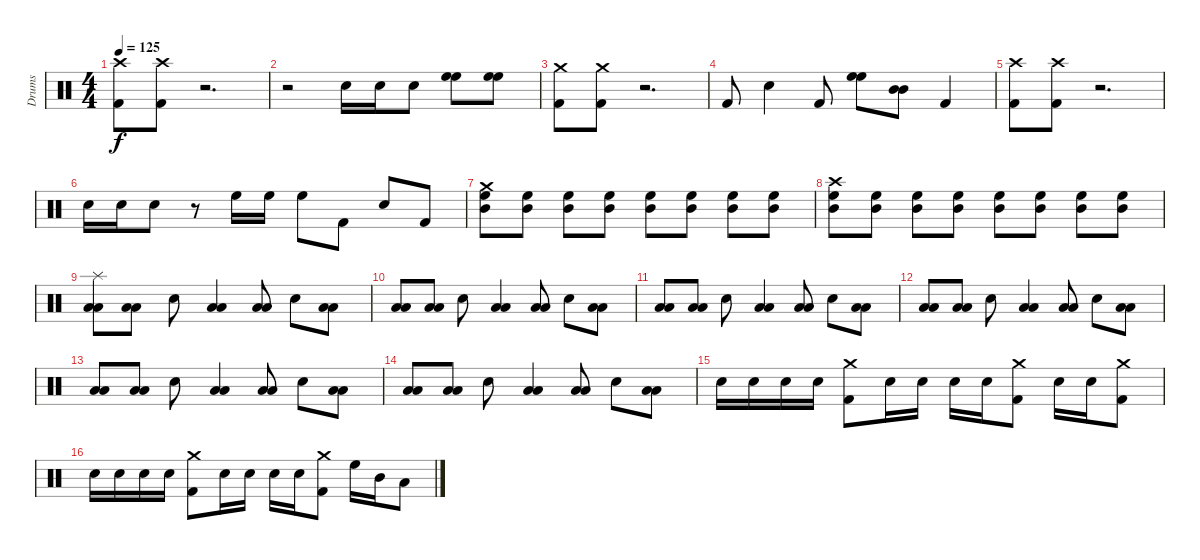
\track ("Drums" "Drums") {instrument percussion}
\staff {score}
\articulation defaults
\ts (4 4)
\tempo 125
\clef neutral
\ks c
("Crash high (hit)" "Kick (hit) 2").8{dy f} ("Crash high (hit)" "Kick (hit) 2").8 r.2{d} |
r.2 "Snare (hit) 2".16 "Snare (hit) 2".16 "Snare (hit) 2".8 ("High Floor Tom (hit)" "High Floor Tom (hit)").8 ("High Floor Tom (hit)" "High Floor Tom (hit)").8 |
("Crash medium (hit)" "Kick (hit) 2").8 ("Crash medium (hit)" "Kick (hit) 2").8 r.2{d} |
"Kick (hit) 2".8 "Snare (hit) 2".4 "Kick (hit) 2".8 ("High Floor Tom (hit)" "High Floor Tom (hit)").8 ("Mid Tom (hit)" "Mid Tom (hit)").8 "Kick (hit) 2".4 |
("Crash high (hit)" "Kick (hit) 2").8 ("Crash high (hit)" "Kick (hit) 2").8 r.2{d} |
"Snare (hit) 2".16 "Snare (hit) 2".16 "Snare (hit) 2".8 r.8 "High Floor Tom (hit)".16 "High Floor Tom (hit)".16 "High Floor Tom (hit)".8 "Kick (hit) 2".8 "Snare (hit) 2".8 "Kick (hit) 2".8 |
("Crash medium (hit)" "High Floor Tom (hit)" "Mid Tom (hit)").8 ("High Floor Tom (hit)" "Mid Tom (hit)").8 ("High Floor Tom (hit)" "Mid Tom (hit)").8 ("High Floor Tom (hit)" "Mid Tom (hit)").8 ("High Floor Tom (hit)" "Mid Tom (hit)").8 ("High Floor Tom (hit)" "Mid Tom (hit)").8 ("High Floor Tom (hit)" "Mid Tom (hit)").8 ("High Floor Tom (hit)" "Mid Tom (hit)").8 |
("Crash high (hit)" "High Floor Tom (hit)" "Mid Tom (hit)").8 ("High Floor Tom (hit)" "Mid Tom (hit)").8 ("High Floor Tom (hit)" "Mid Tom (hit)").8 ("High Floor Tom (hit)" "Mid Tom (hit)").8 ("High Floor Tom (hit)" "Mid Tom (hit)").8 ("High Floor Tom (hit)" "Mid Tom (hit)").8 ("High Floor Tom (hit)" "Mid Tom (hit)").8 ("High Floor Tom (hit)" "Mid Tom (hit)").8 |
("Splash (hit)" "Low Floor Tom (hit)" "Low Floor Tom (hit)").8 ("Low Floor Tom (hit)" "Low Floor Tom (hit)").8 "Snare (hit) 2".8 ("Low Floor Tom (hit)" "Low Floor Tom (hit)").4 ("Low Floor Tom (hit)" "Low Floor Tom (hit)").8 "Snare (hit) 2".8 ("Low Floor Tom (hit)" "Low Floor Tom (hit)").8 |
("Low Floor Tom (hit)" "Low Floor Tom (hit)").8 ("Low Floor Tom (hit)" "Low Floor Tom (hit)").8 "Snare (hit) 2".8 ("Low Floor Tom (hit)" "Low Floor Tom (hit)").4 ("Low Floor Tom (hit)" "Low Floor Tom (hit)").8 "Snare (hit) 2".8 ("Low Floor Tom (hit)" "Low Floor Tom (hit)").8 |
("Low Floor Tom (hit)" "Low Floor Tom (hit)").8 ("Low Floor Tom (hit)" "Low Floor Tom (hit)").8 "Snare (hit) 2".8 ("Low Floor Tom (hit)" "Low Floor Tom (hit)").4 ("Low Floor Tom (hit)" "Low Floor Tom (hit)").8 "Snare (hit) 2".8 ("Low Floor Tom (hit)" "Low Floor Tom (hit)").8 |
("Low Floor Tom (hit)" "Low Floor Tom (hit)").8 ("Low Floor Tom (hit)" "Low Floor Tom (hit)").8 "Snare (hit) 2".8 ("Low Floor Tom (hit)" "Low Floor Tom (hit)").4 ("Low Floor Tom (hit)" "Low Floor Tom (hit)").8 "Snare (hit) 2".8 ("Low Floor Tom (hit)" "Low Floor Tom (hit)").8 |
("Low Floor Tom (hit)" "Low Floor Tom (hit)").8 ("Low Floor Tom (hit)" "Low Floor Tom (hit)").8 "Snare (hit) 2".8 ("Low Floor Tom (hit)" "Low Floor Tom (hit)").4 ("Low Floor Tom (hit)" "Low Floor Tom (hit)").8 "Snare (hit) 2".8 ("Low Floor Tom (hit)" "Low Floor Tom (hit)").8 |
("Low Floor Tom (hit)" "Low Floor Tom (hit)").8 ("Low Floor Tom (hit)" "Low Floor Tom (hit)").8 "Snare (hit) 2".8 ("Low Floor Tom (hit)" "Low Floor Tom (hit)").4 ("Low Floor Tom (hit)" "Low Floor Tom (hit)").8 "Snare (hit) 2".8 ("Low Floor Tom (hit)" "Low Floor Tom (hit)").8 |
"Snare (hit) 2".16 "Snare (hit) 2".16 "Snare (hit) 2".16 "Snare (hit) 2".16 ("Crash medium (hit)" "Kick (hit) 2").8 "Snare (hit) 2".16 "Snare (hit) 2".16 "Snare (hit) 2".16 "Snare (hit) 2".16 ("Crash medium (hit)" "Kick (hit) 2").8 "Snare (hit) 2".16 "Snare (hit) 2".16 ("Crash medium (hit)" "Kick (hit) 2").8 |
"Snare (hit) 2".16 "Snare (hit) 2".16 "Snare (hit) 2".16 "Snare (hit) 2".16 ("Crash medium (hit)" "Kick (hit) 2").8 "Snare (hit) 2".16 "Snare (hit) 2".16 "Snare (hit) 2".16 "Snare (hit) 2".16 ("Crash medium (hit)" "Kick (hit) 2").8 "High Floor Tom (hit)".16 "Mid Tom (hit)".16 "Low Tom (hit)".8
